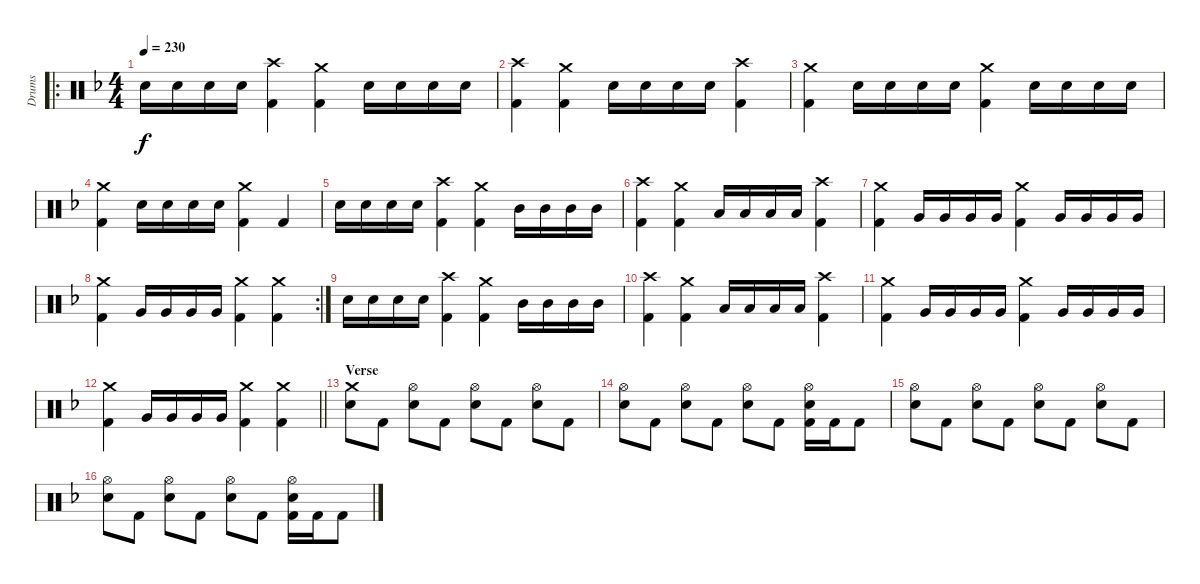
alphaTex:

\track ("Drums" "Drums") {instrument percussion}
\staff {score}
\articulation defaults
\ro
\ts (4 4)
\tempo 230
\clef neutral
\ks f "Snare (hit) 2".16{dy f} "Snare (hit) 2".16 "Snare (hit) 2".16 "Snare (hit) 2".16
("Crash high (hit)" "Kick (hit) 2").4 ("Crash medium (hit)" "Kick (hit) 2").4 "Snare (hit) 2".16 "Snare (hit) 2".16 "Snare (hit) 2".16 "Snare (hit) 2".16 |
("Crash high (hit)" "Kick (hit) 2").4 ("Crash medium (hit)" "Kick (hit) 2").4 "Snare (hit) 2".16 "Snare (hit) 2".16 "Snare (hit) 2".16 "Snare (hit) 2".16 ("Crash high (hit)" "Kick (hit) 2").4 |
("Crash medium (hit)" "Kick (hit) 2").4 "Snare (hit) 2".16 "Snare (hit) 2".16 "Snare (hit) 2".16 "Snare (hit) 2".16 ("Crash medium (hit)" "Kick (hit) 2").4 "Snare (hit) 2".16 "Snare (hit) 2".16 "Snare (hit) 2".16 "Snare (hit) 2".16 |
("Crash medium (hit)" "Kick (hit) 2").4 "Snare (hit) 2".16 "Snare (hit) 2".16 "Snare (hit) 2".16 "Snare (hit) 2".16 ("Crash medium (hit)" "Kick (hit) 2").4 "Kick (hit) 2".4 |
"Snare (hit) 2".16 "Snare (hit) 2".16 "Snare (hit) 2".16 "Snare (hit) 2".16 ("Crash high (hit)" "Kick (hit) 2").4 ("Crash medium (hit)" "Kick (hit) 2").4 "Mid Tom (hit)".16 "Mid Tom (hit)".16 "Mid Tom (hit)".16 "Mid Tom (hit)".16 |
("Crash high (hit)" "Kick (hit) 2").4 ("Crash medium (hit)" "Kick (hit) 2").4 "Low Tom (hit)".16 "Low Tom (hit)".16 "Low Tom (hit)".16 "Low Tom (hit)".16 ("Crash high (hit)" "Kick (hit) 2").4 |
("Crash medium (hit)" "Kick (hit) 2").4 "Very Low Tom (hit)".16 "Very Low Tom (hit)".16 "Very Low Tom (hit)".16 "Very Low Tom (hit)".16 ("Crash medium (hit)" "Kick (hit) 2").4 "Very Low Tom (hit)".16 "Very Low Tom (hit)".16 "Very Low Tom (hit)".16 "Very Low Tom (hit)".16 |
\rc 2
("Crash medium (hit)" "Kick (hit) 2").4 "Very Low Tom (hit)".16 "Very Low Tom (hit)".16 "Very Low Tom (hit)".16 "Very Low Tom (hit)".16 ("Crash medium (hit)" "Kick (hit) 2").4 ("Crash medium (hit)" "Kick (hit) 2").4 |
"Snare (hit) 2".16 "Snare (hit) 2".16 "Snare (hit) 2".16 "Snare (hit) 2".16 ("Crash high (hit)" "Kick (hit) 2").4 ("Crash medium (hit)" "Kick (hit) 2").4 "Mid Tom (hit)".16 "Mid Tom (hit)".16 "Mid Tom (hit)".16 "Mid Tom (hit)".16 |
("Crash high (hit)" "Kick (hit) 2").4 ("Crash medium (hit)" "Kick (hit) 2").4 "Low Tom (hit)".16 "Low Tom (hit)".16 "Low Tom (hit)".16 "Low Tom (hit)".16 ("Crash high (hit)" "Kick (hit) 2").4 |
("Crash medium (hit)" "Kick (hit) 2").4 "Very Low Tom (hit)".16 "Very Low Tom (hit)".16 "Very Low Tom (hit)".16 "Very Low Tom (hit)".16 ("Crash medium (hit)" "Kick (hit) 2").4 "Very Low Tom (hit)".16 "Very Low Tom (hit)".16 "Very Low Tom (hit)".16 "Very Low Tom (hit)".16 |
\barLineRight lightlight
("Crash medium (hit)" "Kick (hit) 2").4 "Very Low Tom (hit)".16 "Very Low Tom (hit)".16 "Very Low Tom (hit)".16 "Very Low Tom (hit)".16 ("Crash medium (hit)" "Kick (hit) 2").4 ("Crash medium (hit)" "Kick (hit) 2").4 |
\section ("" "Verse")
("Crash medium (hit)" "Snare (hit) 2").8 "Kick (hit) 2".8 ("Hi-Hat (open)" "Snare (hit) 2").8 "Kick (hit) 2".8 ("Hi-Hat (open)" "Snare (hit) 2").8 "Kick (hit) 2".8 ("Hi-Hat (open)" "Snare (hit) 2").8 "Kick (hit) 2".8 |
("Hi-Hat (open)" "Snare (hit) 2").8 "Kick (hit) 2".8 ("Hi-Hat (open)" "Snare (hit) 2").8 "Kick (hit) 2".8 ("Hi-Hat (open)" "Snare (hit) 2").8 "Kick (hit) 2".8 ("Hi-Hat (open)" "Snare (hit) 2" "Kick (hit) 2").16 "Kick (hit) 2".16 "Kick (hit) 2".8 |
("Hi-Hat (open)" "Snare (hit) 2").8 "Kick (hit) 2".8 ("Hi-Hat (open)" "Snare (hit) 2").8 "Kick (hit) 2".8 ("Hi-Hat (open)" "Snare (hit) 2").8 "Kick (hit) 2".8 ("Hi-Hat (open)" "Snare (hit) 2").8 "Kick (hit) 2".8 |
("Hi-Hat (open)" "Snare (hit) 2").8 "Kick (hit) 2".8 ("Hi-Hat (open)" "Snare (hit) 2").8 "Kick (hit) 2".8 ("Hi-Hat (open)" "Snare (hit) 2").8 "Kick (hit) 2".8 ("Hi-Hat (open)" "Snare (hit) 2" "Kick (hit) 2").16 "Kick (hit) 2".16 "Kick (hit) 2".8
